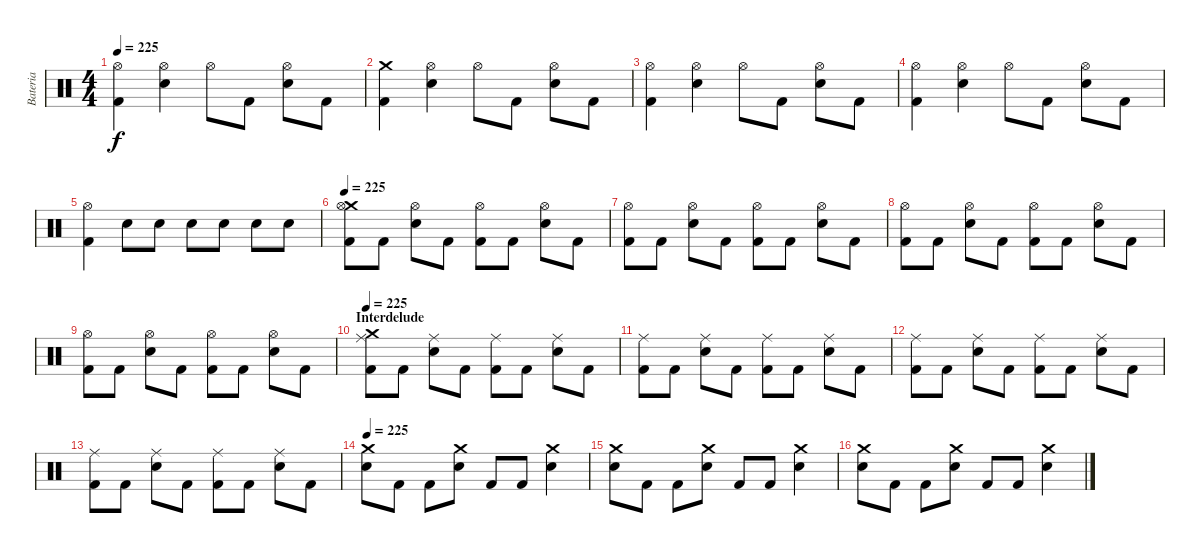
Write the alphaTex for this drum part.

\track ("Bateria" "Bateria") {instrument percussion}
\staff {score}
\articulation defaults
\ts (4 4)
\tempo 225
\clef neutral
\ks c
("Hi-Hat (open)" "Kick (hit) 2").4{dy f} ("Snare (hit) 2" "Hi-Hat (open)").4 "Hi-Hat (open)".8 "Kick (hit) 2".8 ("Hi-Hat (open)" "Snare (hit) 2").8 "Kick (hit) 2".8 |
("Crash medium (hit)" "Kick (hit) 2").4 ("Snare (hit) 2" "Hi-Hat (open)").4 "Hi-Hat (open)".8 "Kick (hit) 2".8 ("Hi-Hat (open)" "Snare (hit) 2").8 "Kick (hit) 2".8 |
("Hi-Hat (open)" "Kick (hit) 2").4 ("Snare (hit) 2" "Hi-Hat (open)").4 "Hi-Hat (open)".8 "Kick (hit) 2".8 ("Hi-Hat (open)" "Snare (hit) 2").8 "Kick (hit) 2".8 |
("Hi-Hat (open)" "Kick (hit) 2").4 ("Snare (hit) 2" "Hi-Hat (open)").4 "Hi-Hat (open)".8 "Kick (hit) 2".8 ("Hi-Hat (open)" "Snare (hit) 2").8 "Kick (hit) 2".8 |
("Hi-Hat (open)" "Kick (hit) 2").4 "Snare (hit) 2".8 "Snare (hit) 2".8 "Snare (hit) 2".8 "Snare (hit) 2".8 "Snare (hit) 2".8 "Snare (hit) 2".8 |
\tempo 225
("Crash medium (hit)" "Hi-Hat (open)" "Kick (hit) 2").8 "Kick (hit) 2".8 ("Hi-Hat (open)" "Snare (hit) 2").8 "Kick (hit) 2".8 ("Hi-Hat (open)" "Kick (hit) 2").8 "Kick (hit) 2".8 ("Hi-Hat (open)" "Snare (hit) 2").8 "Kick (hit) 2".8 |
("Hi-Hat (open)" "Kick (hit) 2").8 "Kick (hit) 2".8 ("Hi-Hat (open)" "Snare (hit) 2").8 "Kick (hit) 2".8 ("Hi-Hat (open)" "Kick (hit) 2").8 "Kick (hit) 2".8 ("Hi-Hat (open)" "Snare (hit) 2").8 "Kick (hit) 2".8 |
("Hi-Hat (open)" "Kick (hit) 2").8 "Kick (hit) 2".8 ("Hi-Hat (open)" "Snare (hit) 2").8 "Kick (hit) 2".8 ("Hi-Hat (open)" "Kick (hit) 2").8 "Kick (hit) 2".8 ("Hi-Hat (open)" "Snare (hit) 2").8 "Kick (hit) 2".8 |
("Hi-Hat (open)" "Kick (hit) 2").8 "Kick (hit) 2".8 ("Hi-Hat (open)" "Snare (hit) 2").8 "Kick (hit) 2".8 ("Hi-Hat (open)" "Kick (hit) 2").8 "Kick (hit) 2".8 ("Hi-Hat (open)" "Snare (hit) 2").8 "Kick (hit) 2".8 |
\section ("" "Interdelude")
\tempo 225
("Crash medium (hit)" "Ride (middle)" "Kick (hit) 2").8 "Kick (hit) 2".8 ("Ride (middle)" "Snare (hit) 2").8 "Kick (hit) 2".8 ("Ride (middle)" "Kick (hit) 2").8 "Kick (hit) 2".8 ("Ride (middle)" "Snare (hit) 2").8 "Kick (hit) 2".8 |
("Ride (middle)" "Kick (hit) 2").8 "Kick (hit) 2".8 ("Ride (middle)" "Snare (hit) 2").8 "Kick (hit) 2".8 ("Ride (middle)" "Kick (hit) 2").8 "Kick (hit) 2".8 ("Ride (middle)" "Snare (hit) 2").8 "Kick (hit) 2".8 |
("Ride (middle)" "Kick (hit) 2").8 "Kick (hit) 2".8 ("Ride (middle)" "Snare (hit) 2").8 "Kick (hit) 2".8 ("Ride (middle)" "Kick (hit) 2").8 "Kick (hit) 2".8 ("Ride (middle)" "Snare (hit) 2").8 "Kick (hit) 2".8 |
("Ride (middle)" "Kick (hit) 2").8 "Kick (hit) 2".8 ("Ride (middle)" "Snare (hit) 2").8 "Kick (hit) 2".8 ("Ride (middle)" "Kick (hit) 2").8 "Kick (hit) 2".8 ("Ride (middle)" "Snare (hit) 2").8 "Kick (hit) 2".8 |
\tempo 225
("Snare (hit) 2" "Crash medium (hit)").8 "Kick (hit) 2".8 "Kick (hit) 2".8 ("Snare (hit) 2" "Crash medium (hit)").8 "Kick (hit) 2".8 "Kick (hit) 2".8 ("Snare (hit) 2" "Crash medium (hit)").4 |
("Snare (hit) 2" "Crash medium (hit)").8 "Kick (hit) 2".8 "Kick (hit) 2".8 ("Snare (hit) 2" "Crash medium (hit)").8 "Kick (hit) 2".8 "Kick (hit) 2".8 ("Snare (hit) 2" "Crash medium (hit)").4 |
("Snare (hit) 2" "Crash medium (hit)").8 "Kick (hit) 2".8 "Kick (hit) 2".8 ("Snare (hit) 2" "Crash medium (hit)").8 "Kick (hit) 2".8 "Kick (hit) 2".8 ("Snare (hit) 2" "Crash medium (hit)").4
